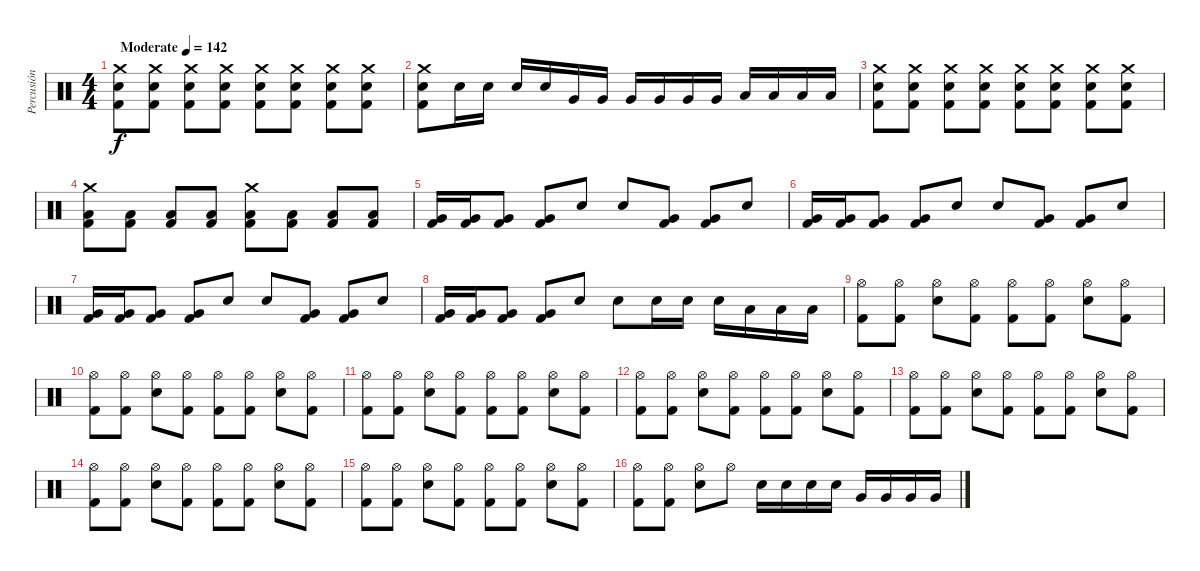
\track ("Percusión" "Percusión") {instrument percussion}
\staff {score}
\articulation defaults
\ts (4 4)
\tempo (142 "Moderate")
\clef neutral
\ks c
("Crash medium (hit)" "Electric Snare (hit)" "Kick (hit) 2").8{dy f} ("Crash medium (hit)" "Electric Snare (hit)" "Kick (hit) 2").8 ("Crash medium (hit)" "Electric Snare (hit)" "Kick (hit) 2").8 ("Crash medium (hit)" "Electric Snare (hit)" "Kick (hit) 2").8 ("Crash medium (hit)" "Electric Snare (hit)" "Kick (hit) 2").8 ("Crash medium (hit)" "Electric Snare (hit)" "Kick (hit) 2").8 ("Crash medium (hit)" "Electric Snare (hit)" "Kick (hit) 2").8 ("Crash medium (hit)" "Electric Snare (hit)" "Kick (hit) 2").8 |
("Crash medium (hit)" "Electric Snare (hit)" "Kick (hit) 2").8 "Electric Snare (hit)".16 "Electric Snare (hit)".16 "Electric Snare (hit)".16 "Electric Snare (hit)".16 "Very Low Tom (hit)".16 "Very Low Tom (hit)".16 "Very Low Tom (hit)".16 "Very Low Tom (hit)".16 "Very Low Tom (hit)".16 "Very Low Tom (hit)".16 "Low Floor Tom (hit)".16 "Low Floor Tom (hit)".16 "Low Floor Tom (hit)".16 "Low Floor Tom (hit)".16 |
("Crash medium (hit)" "Electric Snare (hit)" "Kick (hit) 2").8 ("Crash medium (hit)" "Electric Snare (hit)" "Kick (hit) 2").8 ("Crash medium (hit)" "Electric Snare (hit)" "Kick (hit) 2").8 ("Crash medium (hit)" "Electric Snare (hit)" "Kick (hit) 2").8 ("Crash medium (hit)" "Electric Snare (hit)" "Kick (hit) 2").8 ("Crash medium (hit)" "Electric Snare (hit)" "Kick (hit) 2").8 ("Crash medium (hit)" "Electric Snare (hit)" "Kick (hit) 2").8 ("Crash medium (hit)" "Electric Snare (hit)" "Kick (hit) 2").8 |
("Crash medium (hit)" "Low Floor Tom (hit)" "Kick (hit) 2").8 ("Low Floor Tom (hit)" "Kick (hit) 2").8 ("Low Floor Tom (hit)" "Kick (hit) 2").8 ("Low Floor Tom (hit)" "Kick (hit) 2").8 ("Crash medium (hit)" "Low Floor Tom (hit)" "Kick (hit) 2").8 ("Low Floor Tom (hit)" "Kick (hit) 2").8 ("Low Floor Tom (hit)" "Kick (hit) 2").8 ("Low Floor Tom (hit)" "Kick (hit) 2").8 |
("Very Low Tom (hit)" "Kick (hit) 2").16 ("Very Low Tom (hit)" "Kick (hit) 2").16 ("Very Low Tom (hit)" "Kick (hit) 2").8 ("Very Low Tom (hit)" "Kick (hit) 2").8 "Electric Snare (hit)".8 "Electric Snare (hit)".8 ("Very Low Tom (hit)" "Kick (hit) 2").8 ("Very Low Tom (hit)" "Kick (hit) 2").8 "Electric Snare (hit)".8 |
("Very Low Tom (hit)" "Kick (hit) 2").16 ("Very Low Tom (hit)" "Kick (hit) 2").16 ("Very Low Tom (hit)" "Kick (hit) 2").8 ("Very Low Tom (hit)" "Kick (hit) 2").8 "Electric Snare (hit)".8 "Electric Snare (hit)".8 ("Very Low Tom (hit)" "Kick (hit) 2").8 ("Very Low Tom (hit)" "Kick (hit) 2").8 "Electric Snare (hit)".8 |
("Very Low Tom (hit)" "Kick (hit) 2").16 ("Very Low Tom (hit)" "Kick (hit) 2").16 ("Very Low Tom (hit)" "Kick (hit) 2").8 ("Very Low Tom (hit)" "Kick (hit) 2").8 "Electric Snare (hit)".8 "Electric Snare (hit)".8 ("Very Low Tom (hit)" "Kick (hit) 2").8 ("Very Low Tom (hit)" "Kick (hit) 2").8 "Electric Snare (hit)".8 |
("Very Low Tom (hit)" "Kick (hit) 2").16 ("Very Low Tom (hit)" "Kick (hit) 2").16 ("Very Low Tom (hit)" "Kick (hit) 2").8 ("Very Low Tom (hit)" "Kick (hit) 2").8 "Electric Snare (hit)".8 "Electric Snare (hit)".8 "Electric Snare (hit)".16 "Electric Snare (hit)".16 "Electric Snare (hit)".16 "Low Floor Tom (hit)".16 "Low Floor Tom (hit)".16 "Low Floor Tom (hit)".16 |
("Hi-Hat (open)" "Kick (hit) 2").8 ("Hi-Hat (open)" "Kick (hit) 2").8 ("Hi-Hat (open)" "Electric Snare (hit)").8 ("Hi-Hat (open)" "Kick (hit) 2").8 ("Hi-Hat (open)" "Kick (hit) 2").8 ("Hi-Hat (open)" "Kick (hit) 2").8 ("Hi-Hat (open)" "Electric Snare (hit)").8 ("Hi-Hat (open)" "Kick (hit) 2").8 |
("Hi-Hat (open)" "Kick (hit) 2").8 ("Hi-Hat (open)" "Kick (hit) 2").8 ("Hi-Hat (open)" "Electric Snare (hit)").8 ("Hi-Hat (open)" "Kick (hit) 2").8 ("Hi-Hat (open)" "Kick (hit) 2").8 ("Hi-Hat (open)" "Kick (hit) 2").8 ("Hi-Hat (open)" "Electric Snare (hit)").8 ("Hi-Hat (open)" "Kick (hit) 2").8 |
("Hi-Hat (open)" "Kick (hit) 2").8 ("Hi-Hat (open)" "Kick (hit) 2").8 ("Hi-Hat (open)" "Electric Snare (hit)").8 ("Hi-Hat (open)" "Kick (hit) 2").8 ("Hi-Hat (open)" "Kick (hit) 2").8 ("Hi-Hat (open)" "Kick (hit) 2").8 ("Hi-Hat (open)" "Electric Snare (hit)").8 ("Hi-Hat (open)" "Kick (hit) 2").8 |
("Hi-Hat (open)" "Kick (hit) 2").8 ("Hi-Hat (open)" "Kick (hit) 2").8 ("Hi-Hat (open)" "Electric Snare (hit)").8 ("Hi-Hat (open)" "Kick (hit) 2").8 ("Hi-Hat (open)" "Kick (hit) 2").8 ("Hi-Hat (open)" "Kick (hit) 2").8 ("Hi-Hat (open)" "Electric Snare (hit)").8 ("Hi-Hat (open)" "Kick (hit) 2").8 |
("Hi-Hat (open)" "Kick (hit) 2").8 ("Hi-Hat (open)" "Kick (hit) 2").8 ("Hi-Hat (open)" "Electric Snare (hit)").8 ("Hi-Hat (open)" "Kick (hit) 2").8 ("Hi-Hat (open)" "Kick (hit) 2").8 ("Hi-Hat (open)" "Kick (hit) 2").8 ("Hi-Hat (open)" "Electric Snare (hit)").8 ("Hi-Hat (open)" "Kick (hit) 2").8 |
("Hi-Hat (open)" "Kick (hit) 2").8 ("Hi-Hat (open)" "Kick (hit) 2").8 ("Hi-Hat (open)" "Electric Snare (hit)").8 ("Hi-Hat (open)" "Kick (hit) 2").8 ("Hi-Hat (open)" "Kick (hit) 2").8 ("Hi-Hat (open)" "Kick (hit) 2").8 ("Hi-Hat (open)" "Electric Snare (hit)").8 ("Hi-Hat (open)" "Kick (hit) 2").8 |
("Hi-Hat (open)" "Kick (hit) 2").8 ("Hi-Hat (open)" "Kick (hit) 2").8 ("Hi-Hat (open)" "Electric Snare (hit)").8 ("Hi-Hat (open)" "Kick (hit) 2").8 ("Hi-Hat (open)" "Kick (hit) 2").8 ("Hi-Hat (open)" "Kick (hit) 2").8 ("Hi-Hat (open)" "Electric Snare (hit)").8 ("Hi-Hat (open)" "Kick (hit) 2").8 |
("Hi-Hat (open)" "Kick (hit) 2").8 ("Hi-Hat (open)" "Kick (hit) 2").8 ("Hi-Hat (open)" "Electric Snare (hit)").8 "Hi-Hat (open)".8 "Electric Snare (hit)".16 "Electric Snare (hit)".16 "Electric Snare (hit)".16 "Electric Snare (hit)".16 "Very Low Tom (hit)".16 "Very Low Tom (hit)".16 "Very Low Tom (hit)".16 "Very Low Tom (hit)".16
